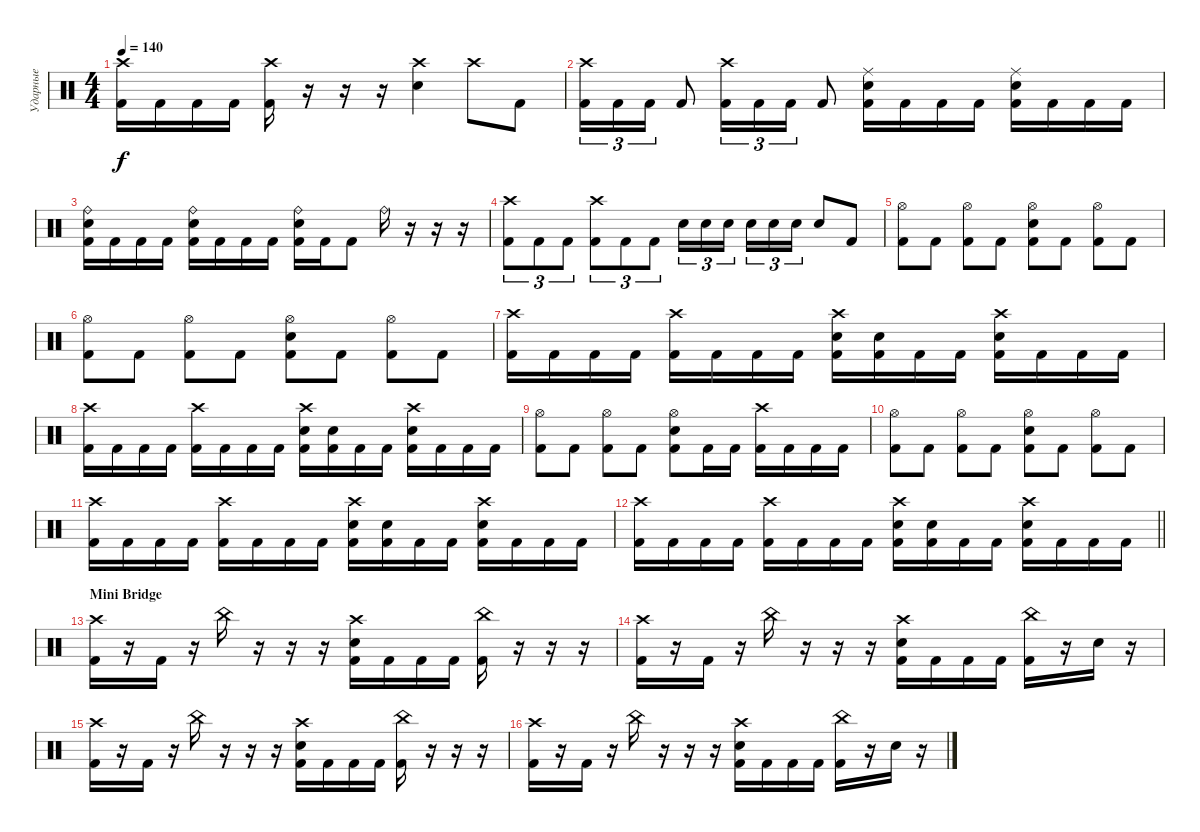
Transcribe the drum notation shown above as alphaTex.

\track ("Ударные" "Ударные") {instrument percussion}
\staff {score}
\articulation defaults
\ts (4 4)
\tempo 140
\clef neutral
\ks c
("Crash high (hit)" "Kick (hit) 2").16{dy f} "Kick (hit) 2".16 "Kick (hit) 2".16 "Kick (hit) 2".16 ("Crash high (hit)" "Kick (hit) 2").16 r.16 r.16 r.16 ("Crash high (hit)" "Electric Snare (hit)").4 "Crash high (hit)".8 "Kick (hit) 2".8 |
("Crash high (hit)" "Kick (hit) 2").16{tu (3 2)} "Kick (hit) 2".16{tu (3 2)} "Kick (hit) 2".16{tu (3 2)} "Kick (hit) 2".8 ("Crash high (hit)" "Kick (hit) 2").16{tu (3 2)} "Kick (hit) 2".16{tu (3 2)} "Kick (hit) 2".16{tu (3 2)} "Kick (hit) 2".8 ("Ride (middle)" "Electric Snare (hit)" "Kick (hit) 2").16 "Kick (hit) 2".16 "Kick (hit) 2".16 "Kick (hit) 2".16 ("Ride (middle)" "Electric Snare (hit)" "Kick (hit) 2").16 "Kick (hit) 2".16 "Kick (hit) 2".16 "Kick (hit) 2".16 |
("Ride (bell)" "Electric Snare (hit)" "Kick (hit) 2").16 "Kick (hit) 2".16 "Kick (hit) 2".16 "Kick (hit) 2".16 ("Ride (bell)" "Electric Snare (hit)" "Kick (hit) 2").16 "Kick (hit) 2".16 "Kick (hit) 2".16 "Kick (hit) 2".16 ("Ride (bell)" "Electric Snare (hit)" "Kick (hit) 2").16 "Kick (hit) 2".16 "Kick (hit) 2".8 "Ride (bell)".16 r.16 r.16 r.16 |
("Crash high (hit)" "Kick (hit) 2").8{tu (3 2)} "Kick (hit) 2".8{tu (3 2)} "Kick (hit) 2".8{tu (3 2)} ("Crash high (hit)" "Kick (hit) 2").8{tu (3 2)} "Kick (hit) 2".8{tu (3 2)} "Kick (hit) 2".8{tu (3 2)} "Electric Snare (hit)".16{tu (3 2)} "Electric Snare (hit)".16{tu (3 2)} "Electric Snare (hit)".16{tu (3 2) beam splitsecondary} "Electric Snare (hit)".16{tu (3 2)} "Electric Snare (hit)".16{tu (3 2)} "Electric Snare (hit)".16{tu (3 2)} "Electric Snare (hit)".8 "Kick (hit) 2".8 |
("Hi-Hat (open)" "Kick (hit) 2").8 "Kick (hit) 2".8 ("Hi-Hat (open)" "Kick (hit) 2").8 "Kick (hit) 2".8 ("Hi-Hat (open)" "Electric Snare (hit)" "Kick (hit) 2").8 "Kick (hit) 2".8 ("Hi-Hat (open)" "Kick (hit) 2").8 "Kick (hit) 2".8 |
("Hi-Hat (open)" "Kick (hit) 2").8 "Kick (hit) 2".8 ("Hi-Hat (open)" "Kick (hit) 2").8 "Kick (hit) 2".8 ("Hi-Hat (open)" "Electric Snare (hit)" "Kick (hit) 2").8 "Kick (hit) 2".8 ("Hi-Hat (open)" "Kick (hit) 2").8 "Kick (hit) 2".8 |
("Crash high (hit)" "Kick (hit) 2").16 "Kick (hit) 2".16 "Kick (hit) 2".16 "Kick (hit) 2".16 ("Crash high (hit)" "Kick (hit) 2").16 "Kick (hit) 2".16 "Kick (hit) 2".16 "Kick (hit) 2".16 ("Crash high (hit)" "Electric Snare (hit)" "Kick (hit) 2").16 ("Electric Snare (hit)" "Kick (hit) 2").16 "Kick (hit) 2".16 "Kick (hit) 2".16 ("Crash high (hit)" "Electric Snare (hit)" "Kick (hit) 2").16 "Kick (hit) 2".16 "Kick (hit) 2".16 "Kick (hit) 2".16 |
("Crash high (hit)" "Kick (hit) 2").16 "Kick (hit) 2".16 "Kick (hit) 2".16 "Kick (hit) 2".16 ("Crash high (hit)" "Kick (hit) 2").16 "Kick (hit) 2".16 "Kick (hit) 2".16 "Kick (hit) 2".16 ("Crash high (hit)" "Electric Snare (hit)" "Kick (hit) 2").16 ("Electric Snare (hit)" "Kick (hit) 2").16 "Kick (hit) 2".16 "Kick (hit) 2".16 ("Crash high (hit)" "Electric Snare (hit)" "Kick (hit) 2").16 "Kick (hit) 2".16 "Kick (hit) 2".16 "Kick (hit) 2".16 |
("Hi-Hat (open)" "Kick (hit) 2").8 "Kick (hit) 2".8 ("Hi-Hat (open)" "Kick (hit) 2").8 "Kick (hit) 2".8 ("Hi-Hat (open)" "Electric Snare (hit)" "Kick (hit) 2").8 "Kick (hit) 2".16 "Kick (hit) 2".16 ("Crash high (hit)" "Kick (hit) 2").16 "Kick (hit) 2".16 "Kick (hit) 2".16 "Kick (hit) 2".16 |
("Hi-Hat (open)" "Kick (hit) 2").8 "Kick (hit) 2".8 ("Hi-Hat (open)" "Kick (hit) 2").8 "Kick (hit) 2".8 ("Hi-Hat (open)" "Electric Snare (hit)" "Kick (hit) 2").8 "Kick (hit) 2".8 ("Hi-Hat (open)" "Kick (hit) 2").8 "Kick (hit) 2".8 |
("Crash high (hit)" "Kick (hit) 2").16 "Kick (hit) 2".16 "Kick (hit) 2".16 "Kick (hit) 2".16 ("Crash high (hit)" "Kick (hit) 2").16 "Kick (hit) 2".16 "Kick (hit) 2".16 "Kick (hit) 2".16 ("Crash high (hit)" "Electric Snare (hit)" "Kick (hit) 2").16 ("Electric Snare (hit)" "Kick (hit) 2").16 "Kick (hit) 2".16 "Kick (hit) 2".16 ("Crash high (hit)" "Electric Snare (hit)" "Kick (hit) 2").16 "Kick (hit) 2".16 "Kick (hit) 2".16 "Kick (hit) 2".16 |
\barLineRight lightlight
("Crash high (hit)" "Kick (hit) 2").16 "Kick (hit) 2".16 "Kick (hit) 2".16 "Kick (hit) 2".16 ("Crash high (hit)" "Kick (hit) 2").16 "Kick (hit) 2".16 "Kick (hit) 2".16 "Kick (hit) 2".16 ("Crash high (hit)" "Electric Snare (hit)" "Kick (hit) 2").16 ("Electric Snare (hit)" "Kick (hit) 2").16 "Kick (hit) 2".16 "Kick (hit) 2".16 ("Crash high (hit)" "Electric Snare (hit)" "Kick (hit) 2").16 "Kick (hit) 2".16 "Kick (hit) 2".16 "Kick (hit) 2".16 |
\section ("" "Mini Bridge")
("Crash high (hit)" "Kick (hit) 2").16 r.16 "Kick (hit) 2".16 r.16 "China (hit)".16 r.16 r.16 r.16 ("Crash high (hit)" "Electric Snare (hit)" "Kick (hit) 2").16 "Kick (hit) 2".16 "Kick (hit) 2".16 "Kick (hit) 2".16 ("China (hit)" "Kick (hit) 2").16 r.16 r.16 r.16 |
("Crash high (hit)" "Kick (hit) 2").16 r.16 "Kick (hit) 2".16 r.16 "China (hit)".16 r.16 r.16 r.16 ("Crash high (hit)" "Electric Snare (hit)" "Kick (hit) 2").16 "Kick (hit) 2".16 "Kick (hit) 2".16 "Kick (hit) 2".16 ("China (hit)" "Kick (hit) 2").16 r.16 "Electric Snare (hit)".16 r.16 |
("Crash high (hit)" "Kick (hit) 2").16 r.16 "Kick (hit) 2".16 r.16 "China (hit)".16 r.16 r.16 r.16 ("Crash high (hit)" "Electric Snare (hit)" "Kick (hit) 2").16 "Kick (hit) 2".16 "Kick (hit) 2".16 "Kick (hit) 2".16 ("China (hit)" "Kick (hit) 2").16 r.16 r.16 r.16 |
("Crash high (hit)" "Kick (hit) 2").16 r.16 "Kick (hit) 2".16 r.16 "China (hit)".16 r.16 r.16 r.16 ("Crash high (hit)" "Electric Snare (hit)" "Kick (hit) 2").16 "Kick (hit) 2".16 "Kick (hit) 2".16 "Kick (hit) 2".16 ("China (hit)" "Kick (hit) 2").16 r.16 "Electric Snare (hit)".16 r.16
